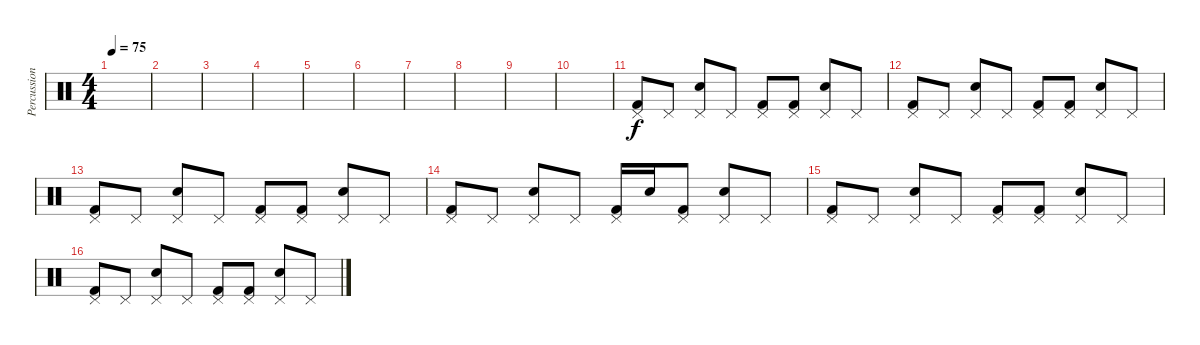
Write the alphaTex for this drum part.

\track ("Percussion" "Percussion") {instrument percussion}
\staff {score}
\articulation defaults
\ts (4 4)
\tempo 75
\clef neutral
\ks c
|
|
|
|
|
|
|
|
|
|
("Pedal Hi-Hat (hit)" "Kick (hit) 2").8 "Pedal Hi-Hat (hit)".8 ("Pedal Hi-Hat (hit)" "Snare (hit) 2").8 "Pedal Hi-Hat (hit)".8 ("Pedal Hi-Hat (hit)" "Kick (hit) 2").8 ("Pedal Hi-Hat (hit)" "Kick (hit) 2").8 ("Pedal Hi-Hat (hit)" "Snare (hit) 2").8 "Pedal Hi-Hat (hit)".8 |
("Pedal Hi-Hat (hit)" "Kick (hit) 2").8 "Pedal Hi-Hat (hit)".8 ("Pedal Hi-Hat (hit)" "Snare (hit) 2").8 "Pedal Hi-Hat (hit)".8 ("Pedal Hi-Hat (hit)" "Kick (hit) 2").8 ("Pedal Hi-Hat (hit)" "Kick (hit) 2").8 ("Pedal Hi-Hat (hit)" "Snare (hit) 2").8 "Pedal Hi-Hat (hit)".8 |
("Pedal Hi-Hat (hit)" "Kick (hit) 2").8 "Pedal Hi-Hat (hit)".8 ("Pedal Hi-Hat (hit)" "Snare (hit) 2").8 "Pedal Hi-Hat (hit)".8 ("Pedal Hi-Hat (hit)" "Kick (hit) 2").8 ("Pedal Hi-Hat (hit)" "Kick (hit) 2").8 ("Pedal Hi-Hat (hit)" "Snare (hit) 2").8 "Pedal Hi-Hat (hit)".8 |
("Pedal Hi-Hat (hit)" "Kick (hit) 2").8 "Pedal Hi-Hat (hit)".8 ("Pedal Hi-Hat (hit)" "Snare (hit) 2").8 "Pedal Hi-Hat (hit)".8 ("Pedal Hi-Hat (hit)" "Kick (hit) 2").16 "Snare (hit) 2".16 ("Pedal Hi-Hat (hit)" "Kick (hit) 2").8 ("Pedal Hi-Hat (hit)" "Snare (hit) 2").8 "Pedal Hi-Hat (hit)".8 |
("Pedal Hi-Hat (hit)" "Kick (hit) 2").8 "Pedal Hi-Hat (hit)".8 ("Pedal Hi-Hat (hit)" "Snare (hit) 2").8 "Pedal Hi-Hat (hit)".8 ("Pedal Hi-Hat (hit)" "Kick (hit) 2").8 ("Pedal Hi-Hat (hit)" "Kick (hit) 2").8 ("Pedal Hi-Hat (hit)" "Snare (hit) 2").8 "Pedal Hi-Hat (hit)".8 |
("Pedal Hi-Hat (hit)" "Kick (hit) 2").8 "Pedal Hi-Hat (hit)".8 ("Pedal Hi-Hat (hit)" "Snare (hit) 2").8 "Pedal Hi-Hat (hit)".8 ("Pedal Hi-Hat (hit)" "Kick (hit) 2").8 ("Pedal Hi-Hat (hit)" "Kick (hit) 2").8 ("Pedal Hi-Hat (hit)" "Snare (hit) 2").8 "Pedal Hi-Hat (hit)".8
